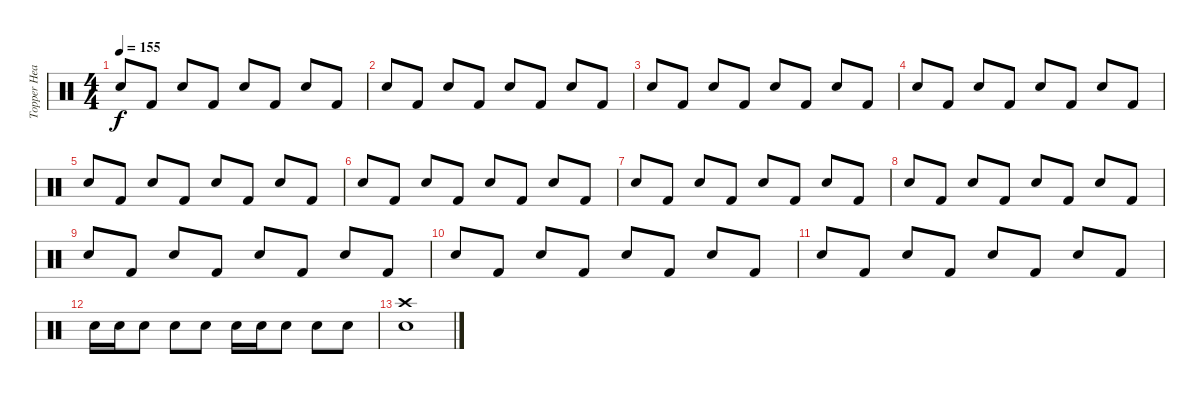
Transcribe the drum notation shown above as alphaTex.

\track ("Topper Headon - Drums" "Topper Hea") {instrument percussion}
\staff {score}
\articulation defaults
\ts (4 4)
\tempo 155
\clef neutral
\ks c "Snare (hit) 2".8{dy f} "Kick (hit) 2".8 "Snare (hit) 2".8 "Kick (hit) 2".8 "Snare (hit) 2".8 "Kick (hit) 2".8 "Snare (hit) 2".8 "Kick (hit) 2".8
|
"Snare (hit) 2".8 "Kick (hit) 2".8 "Snare (hit) 2".8 "Kick (hit) 2".8 "Snare (hit) 2".8 "Kick (hit) 2".8 "Snare (hit) 2".8 "Kick (hit) 2".8 |
"Snare (hit) 2".8 "Kick (hit) 2".8 "Snare (hit) 2".8 "Kick (hit) 2".8 "Snare (hit) 2".8 "Kick (hit) 2".8 "Snare (hit) 2".8 "Kick (hit) 2".8 |
"Snare (hit) 2".8 "Kick (hit) 2".8 "Snare (hit) 2".8 "Kick (hit) 2".8 "Snare (hit) 2".8 "Kick (hit) 2".8 "Snare (hit) 2".8 "Kick (hit) 2".8 |
"Snare (hit) 2".8 "Kick (hit) 2".8 "Snare (hit) 2".8 "Kick (hit) 2".8 "Snare (hit) 2".8 "Kick (hit) 2".8 "Snare (hit) 2".8 "Kick (hit) 2".8 |
"Snare (hit) 2".8 "Kick (hit) 2".8 "Snare (hit) 2".8 "Kick (hit) 2".8 "Snare (hit) 2".8 "Kick (hit) 2".8 "Snare (hit) 2".8 "Kick (hit) 2".8 |
"Snare (hit) 2".8 "Kick (hit) 2".8 "Snare (hit) 2".8 "Kick (hit) 2".8 "Snare (hit) 2".8 "Kick (hit) 2".8 "Snare (hit) 2".8 "Kick (hit) 2".8 |
"Snare (hit) 2".8 "Kick (hit) 2".8 "Snare (hit) 2".8 "Kick (hit) 2".8 "Snare (hit) 2".8 "Kick (hit) 2".8 "Snare (hit) 2".8 "Kick (hit) 2".8 |
"Snare (hit) 2".8 "Kick (hit) 2".8 "Snare (hit) 2".8 "Kick (hit) 2".8 "Snare (hit) 2".8 "Kick (hit) 2".8 "Snare (hit) 2".8 "Kick (hit) 2".8 |
"Snare (hit) 2".8 "Kick (hit) 2".8 "Snare (hit) 2".8 "Kick (hit) 2".8 "Snare (hit) 2".8 "Kick (hit) 2".8 "Snare (hit) 2".8 "Kick (hit) 2".8 |
"Snare (hit) 2".8 "Kick (hit) 2".8 "Snare (hit) 2".8 "Kick (hit) 2".8 "Snare (hit) 2".8 "Kick (hit) 2".8 "Snare (hit) 2".8 "Kick (hit) 2".8 |
"Snare (hit) 2".16 "Snare (hit) 2".16 "Snare (hit) 2".8 "Snare (hit) 2".8 "Snare (hit) 2".8 "Snare (hit) 2".16 "Snare (hit) 2".16 "Snare (hit) 2".8 "Snare (hit) 2".8 "Snare (hit) 2".8 |
("Snare (hit) 2" "Crash high (hit)").1
